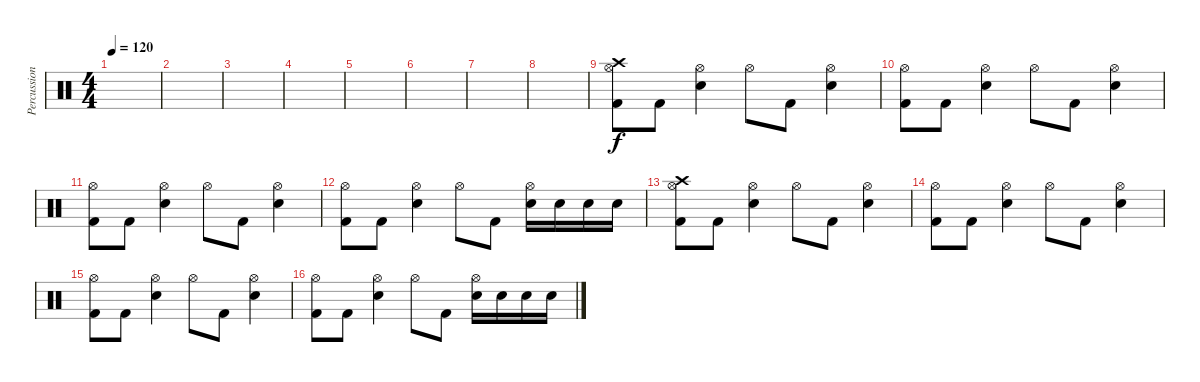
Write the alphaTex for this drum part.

\track ("Percussion" "Percussion") {instrument percussion}
\staff {score}
\articulation defaults
\ts (4 4)
\tempo 120
\clef neutral
\ks c
|
|
|
|
|
|
|
|
("Crash high (hit)" "Kick (hit) 2" "Hi-Hat (open)").8{dy f} "Kick (hit) 2".8 ("Electric Snare (hit)" "Hi-Hat (open)").4 "Hi-Hat (open)".8 "Kick (hit) 2".8 ("Electric Snare (hit)" "Hi-Hat (open)").4 |
("Kick (hit) 2" "Hi-Hat (open)").8 "Kick (hit) 2".8 ("Electric Snare (hit)" "Hi-Hat (open)").4 "Hi-Hat (open)".8 "Kick (hit) 2".8 ("Electric Snare (hit)" "Hi-Hat (open)").4 |
("Kick (hit) 2" "Hi-Hat (open)").8 "Kick (hit) 2".8 ("Electric Snare (hit)" "Hi-Hat (open)").4 "Hi-Hat (open)".8 "Kick (hit) 2".8 ("Electric Snare (hit)" "Hi-Hat (open)").4 |
("Kick (hit) 2" "Hi-Hat (open)").8 "Kick (hit) 2".8 ("Electric Snare (hit)" "Hi-Hat (open)").4 "Hi-Hat (open)".8 "Kick (hit) 2".8 ("Electric Snare (hit)" "Hi-Hat (open)").16 "Electric Snare (hit)".16 "Electric Snare (hit)".16 "Electric Snare (hit)".16 |
("Crash high (hit)" "Kick (hit) 2" "Hi-Hat (open)").8 "Kick (hit) 2".8 ("Electric Snare (hit)" "Hi-Hat (open)").4 "Hi-Hat (open)".8 "Kick (hit) 2".8 ("Electric Snare (hit)" "Hi-Hat (open)").4 |
("Kick (hit) 2" "Hi-Hat (open)").8 "Kick (hit) 2".8 ("Electric Snare (hit)" "Hi-Hat (open)").4 "Hi-Hat (open)".8 "Kick (hit) 2".8 ("Electric Snare (hit)" "Hi-Hat (open)").4 |
("Kick (hit) 2" "Hi-Hat (open)").8 "Kick (hit) 2".8 ("Electric Snare (hit)" "Hi-Hat (open)").4 "Hi-Hat (open)".8 "Kick (hit) 2".8 ("Electric Snare (hit)" "Hi-Hat (open)").4 |
("Kick (hit) 2" "Hi-Hat (open)").8 "Kick (hit) 2".8 ("Electric Snare (hit)" "Hi-Hat (open)").4 "Hi-Hat (open)".8 "Kick (hit) 2".8 ("Electric Snare (hit)" "Hi-Hat (open)").16 "Electric Snare (hit)".16 "Electric Snare (hit)".16 "Electric Snare (hit)".16
